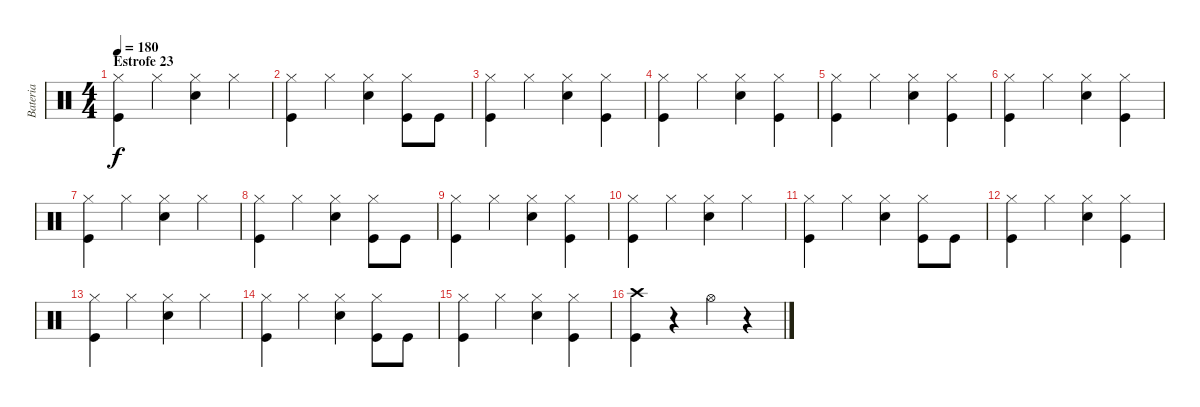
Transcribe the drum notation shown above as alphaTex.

\track ("Bateria" "Bateria") {instrument percussion}
\staff {score}
\articulation defaults
\ts (4 4)
\section ("" "Estrofe 23")
\tempo 180
\clef neutral
\ks c
("Hi-Hat (closed)" "Kick (hit)").4{dy f} "Hi-Hat (closed)".4 ("Hi-Hat (closed)" "Snare (hit) 2").4 "Hi-Hat (closed)".4 |
("Hi-Hat (closed)" "Kick (hit)").4 "Hi-Hat (closed)".4 ("Hi-Hat (closed)" "Snare (hit) 2").4 ("Hi-Hat (closed)" "Kick (hit)").8 "Kick (hit)".8 |
("Hi-Hat (closed)" "Kick (hit)").4 "Hi-Hat (closed)".4 ("Hi-Hat (closed)" "Snare (hit) 2").4 ("Hi-Hat (closed)" "Kick (hit)").4 |
("Hi-Hat (closed)" "Kick (hit)").4 "Hi-Hat (closed)".4 ("Hi-Hat (closed)" "Snare (hit) 2").4 ("Hi-Hat (closed)" "Kick (hit)").4 |
("Hi-Hat (closed)" "Kick (hit)").4 "Hi-Hat (closed)".4 ("Hi-Hat (closed)" "Snare (hit) 2").4 ("Hi-Hat (closed)" "Kick (hit)").4 |
("Hi-Hat (closed)" "Kick (hit)").4 "Hi-Hat (closed)".4 ("Hi-Hat (closed)" "Snare (hit) 2").4 ("Hi-Hat (closed)" "Kick (hit)").4 |
("Hi-Hat (closed)" "Kick (hit)").4 "Hi-Hat (closed)".4 ("Hi-Hat (closed)" "Snare (hit) 2").4 "Hi-Hat (closed)".4 |
("Hi-Hat (closed)" "Kick (hit)").4 "Hi-Hat (closed)".4 ("Hi-Hat (closed)" "Snare (hit) 2").4 ("Hi-Hat (closed)" "Kick (hit)").8 "Kick (hit)".8 |
("Hi-Hat (closed)" "Kick (hit)").4 "Hi-Hat (closed)".4 ("Hi-Hat (closed)" "Snare (hit) 2").4 ("Hi-Hat (closed)" "Kick (hit)").4 |
("Hi-Hat (closed)" "Kick (hit)").4 "Hi-Hat (closed)".4 ("Hi-Hat (closed)" "Snare (hit) 2").4 "Hi-Hat (closed)".4 |
("Hi-Hat (closed)" "Kick (hit)").4 "Hi-Hat (closed)".4 ("Hi-Hat (closed)" "Snare (hit) 2").4 ("Hi-Hat (closed)" "Kick (hit)").8 "Kick (hit)".8 |
("Hi-Hat (closed)" "Kick (hit)").4 "Hi-Hat (closed)".4 ("Hi-Hat (closed)" "Snare (hit) 2").4 ("Hi-Hat (closed)" "Kick (hit)").4 |
("Hi-Hat (closed)" "Kick (hit)").4 "Hi-Hat (closed)".4 ("Hi-Hat (closed)" "Snare (hit) 2").4 "Hi-Hat (closed)".4 |
("Hi-Hat (closed)" "Kick (hit)").4 "Hi-Hat (closed)".4 ("Hi-Hat (closed)" "Snare (hit) 2").4 ("Hi-Hat (closed)" "Kick (hit)").8 "Kick (hit)".8 |
("Hi-Hat (closed)" "Kick (hit)").4 "Hi-Hat (closed)".4 ("Hi-Hat (closed)" "Snare (hit) 2").4 ("Hi-Hat (closed)" "Kick (hit)").4 |
("Crash high (hit)" "Kick (hit)").4 r.4 "Hi-Hat (open)".4 r.4
